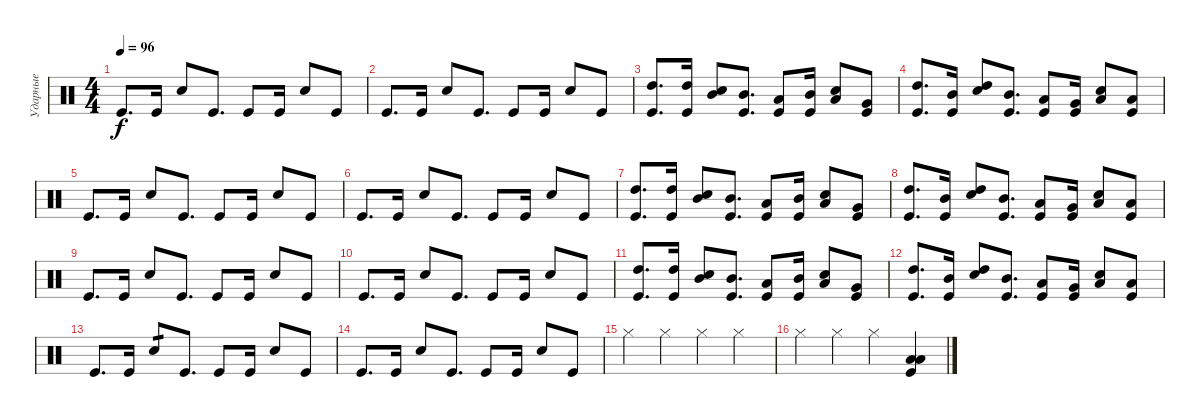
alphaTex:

\track ("Ударные" "Ударные") {instrument percussion}
\staff {score}
\articulation defaults
\ts (4 4)
\tempo 96
\clef neutral
\ks c "Kick (hit)".8{d dy f} "Kick (hit)".16 "Electric Snare (hit)".8 "Kick (hit)".8{d} "Kick (hit)".8 "Kick (hit)".16 "Electric Snare (hit)".8 "Kick (hit)".8
|
"Kick (hit)".8{d} "Kick (hit)".16 "Electric Snare (hit)".8 "Kick (hit)".8{d} "Kick (hit)".8 "Kick (hit)".16 "Electric Snare (hit)".8 "Kick (hit)".8 |
("High Tom (hit)" "Kick (hit)").8{d} ("High Tom (hit)" "Kick (hit)").16 ("Mid Tom (hit)" "Electric Snare (hit)").8 ("Mid Tom (hit)" "Kick (hit)").8{d} ("Low Tom (hit)" "Kick (hit)").8 ("Mid Tom (hit)" "Kick (hit)").16 ("Low Tom (hit)" "Electric Snare (hit)").8 ("Very Low Tom (hit)" "Kick (hit)").8 |
("High Tom (hit)" "Kick (hit)").8{d} ("Mid Tom (hit)" "Kick (hit)").16 ("High Tom (hit)" "Electric Snare (hit)").8 ("Mid Tom (hit)" "Kick (hit)").8{d} ("Low Tom (hit)" "Kick (hit)").8 ("Very Low Tom (hit)" "Kick (hit)").16 ("Low Floor Tom (hit)" "Electric Snare (hit)").8 ("Low Floor Tom (hit)" "Kick (hit)").8 |
"Kick (hit)".8{d} "Kick (hit)".16 "Electric Snare (hit)".8 "Kick (hit)".8{d} "Kick (hit)".8 "Kick (hit)".16 "Electric Snare (hit)".8 "Kick (hit)".8 |
"Kick (hit)".8{d} "Kick (hit)".16 "Electric Snare (hit)".8 "Kick (hit)".8{d} "Kick (hit)".8 "Kick (hit)".16 "Electric Snare (hit)".8 "Kick (hit)".8 |
("High Tom (hit)" "Kick (hit)").8{d} ("High Tom (hit)" "Kick (hit)").16 ("Mid Tom (hit)" "Electric Snare (hit)").8 ("Mid Tom (hit)" "Kick (hit)").8{d} ("Low Tom (hit)" "Kick (hit)").8 ("Mid Tom (hit)" "Kick (hit)").16 ("Low Tom (hit)" "Electric Snare (hit)").8 ("Very Low Tom (hit)" "Kick (hit)").8 |
("High Tom (hit)" "Kick (hit)").8{d} ("Mid Tom (hit)" "Kick (hit)").16 ("High Tom (hit)" "Electric Snare (hit)").8 ("Mid Tom (hit)" "Kick (hit)").8{d} ("Low Tom (hit)" "Kick (hit)").8 ("Very Low Tom (hit)" "Kick (hit)").16 ("Low Floor Tom (hit)" "Electric Snare (hit)").8 ("Low Floor Tom (hit)" "Kick (hit)").8 |
"Kick (hit)".8{d} "Kick (hit)".16 "Electric Snare (hit)".8 "Kick (hit)".8{d} "Kick (hit)".8 "Kick (hit)".16 "Electric Snare (hit)".8 "Kick (hit)".8 |
"Kick (hit)".8{d} "Kick (hit)".16 "Electric Snare (hit)".8 "Kick (hit)".8{d} "Kick (hit)".8 "Kick (hit)".16 "Electric Snare (hit)".8 "Kick (hit)".8 |
("High Tom (hit)" "Kick (hit)").8{d} ("High Tom (hit)" "Kick (hit)").16 ("Mid Tom (hit)" "Electric Snare (hit)").8 ("Mid Tom (hit)" "Kick (hit)").8{d} ("Low Tom (hit)" "Kick (hit)").8 ("Mid Tom (hit)" "Kick (hit)").16 ("Low Tom (hit)" "Electric Snare (hit)").8 ("Very Low Tom (hit)" "Kick (hit)").8 |
("High Tom (hit)" "Kick (hit)").8{d} ("Mid Tom (hit)" "Kick (hit)").16 ("High Tom (hit)" "Electric Snare (hit)").8 ("Mid Tom (hit)" "Kick (hit)").8{d} ("Low Tom (hit)" "Kick (hit)").8 ("Very Low Tom (hit)" "Kick (hit)").16 ("Low Floor Tom (hit)" "Electric Snare (hit)").8 ("Low Floor Tom (hit)" "Kick (hit)").8 |
"Kick (hit)".8{d} "Kick (hit)".16 "Electric Snare (hit)".8{tp 1} "Kick (hit)".8{d} "Kick (hit)".8 "Kick (hit)".16 "Electric Snare (hit)".8 "Kick (hit)".8 |
"Kick (hit)".8{d} "Kick (hit)".16 "Electric Snare (hit)".8 "Kick (hit)".8{d} "Kick (hit)".8 "Kick (hit)".16 "Electric Snare (hit)".8 "Kick (hit)".8 |
"Hi-Hat (closed)".4 "Hi-Hat (closed)".4 "Hi-Hat (closed)".4 "Hi-Hat (closed)".4 |
"Hi-Hat (closed)".4 "Hi-Hat (closed)".4 "Hi-Hat (closed)".4 ("Low Floor Tom (hit)" "Low Floor Tom (hit)" "Kick (hit)").4
